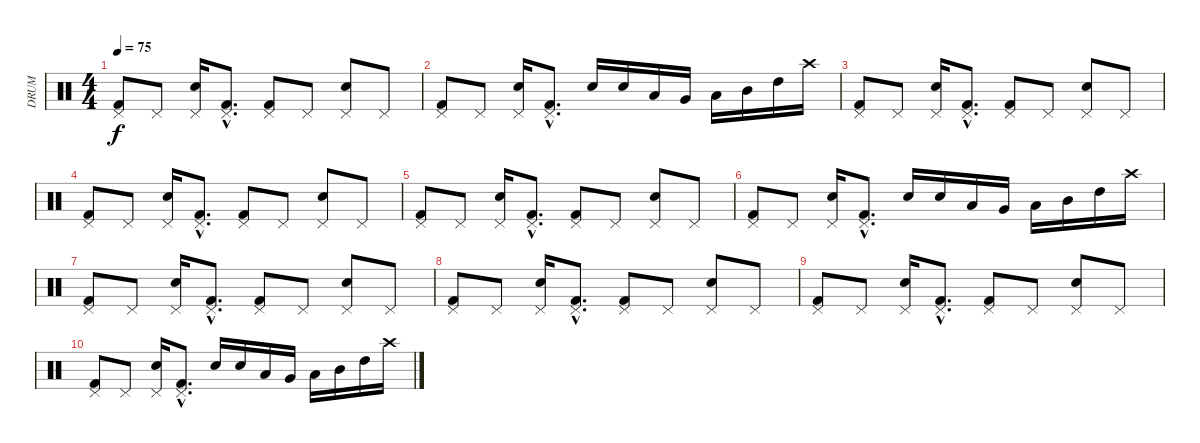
\track ("DRUM" "DRUM") {instrument percussion}
\staff {score}
\articulation defaults
\ts (4 4)
\tempo 75
\clef neutral
\ks c
("Kick (hit) 2" "Pedal Hi-Hat (hit)").8{dy f} "Pedal Hi-Hat (hit)".8 ("Electric Snare (hit)" "Pedal Hi-Hat (hit)").16 ("Kick (hit) 2"{hac} "Pedal Hi-Hat (hit)"{hac}).8{d} ("Kick (hit) 2" "Pedal Hi-Hat (hit)").8 "Pedal Hi-Hat (hit)".8 ("Electric Snare (hit)" "Pedal Hi-Hat (hit)").8 "Pedal Hi-Hat (hit)".8 |
("Kick (hit) 2" "Pedal Hi-Hat (hit)").8 "Pedal Hi-Hat (hit)".8 ("Electric Snare (hit)" "Pedal Hi-Hat (hit)").16 ("Kick (hit) 2"{hac} "Pedal Hi-Hat (hit)"{hac}).8{d} "Electric Snare (hit)".16 "Electric Snare (hit)".16 "Low Floor Tom (hit)".16 "Very Low Tom (hit)".16 "Low Tom (hit)".16 "Mid Tom (hit)".16 "High Tom (hit)".16 "Crash high (hit)".16 |
("Kick (hit) 2" "Pedal Hi-Hat (hit)").8 "Pedal Hi-Hat (hit)".8 ("Electric Snare (hit)" "Pedal Hi-Hat (hit)").16 ("Kick (hit) 2"{hac} "Pedal Hi-Hat (hit)"{hac}).8{d} ("Kick (hit) 2" "Pedal Hi-Hat (hit)").8 "Pedal Hi-Hat (hit)".8 ("Electric Snare (hit)" "Pedal Hi-Hat (hit)").8 "Pedal Hi-Hat (hit)".8 |
("Kick (hit) 2" "Pedal Hi-Hat (hit)").8 "Pedal Hi-Hat (hit)".8 ("Electric Snare (hit)" "Pedal Hi-Hat (hit)").16 ("Kick (hit) 2"{hac} "Pedal Hi-Hat (hit)"{hac}).8{d} ("Kick (hit) 2" "Pedal Hi-Hat (hit)").8 "Pedal Hi-Hat (hit)".8 ("Electric Snare (hit)" "Pedal Hi-Hat (hit)").8 "Pedal Hi-Hat (hit)".8 |
("Kick (hit) 2" "Pedal Hi-Hat (hit)").8 "Pedal Hi-Hat (hit)".8 ("Electric Snare (hit)" "Pedal Hi-Hat (hit)").16 ("Kick (hit) 2"{hac} "Pedal Hi-Hat (hit)"{hac}).8{d} ("Kick (hit) 2" "Pedal Hi-Hat (hit)").8 "Pedal Hi-Hat (hit)".8 ("Electric Snare (hit)" "Pedal Hi-Hat (hit)").8 "Pedal Hi-Hat (hit)".8 |
("Kick (hit) 2" "Pedal Hi-Hat (hit)").8 "Pedal Hi-Hat (hit)".8 ("Electric Snare (hit)" "Pedal Hi-Hat (hit)").16 ("Kick (hit) 2"{hac} "Pedal Hi-Hat (hit)"{hac}).8{d} "Electric Snare (hit)".16 "Electric Snare (hit)".16 "Low Floor Tom (hit)".16 "Very Low Tom (hit)".16 "Low Tom (hit)".16 "Mid Tom (hit)".16 "High Tom (hit)".16 "Crash high (hit)".16 |
("Kick (hit) 2" "Pedal Hi-Hat (hit)").8 "Pedal Hi-Hat (hit)".8 ("Electric Snare (hit)" "Pedal Hi-Hat (hit)").16 ("Kick (hit) 2"{hac} "Pedal Hi-Hat (hit)"{hac}).8{d} ("Kick (hit) 2" "Pedal Hi-Hat (hit)").8 "Pedal Hi-Hat (hit)".8 ("Electric Snare (hit)" "Pedal Hi-Hat (hit)").8 "Pedal Hi-Hat (hit)".8 |
("Kick (hit) 2" "Pedal Hi-Hat (hit)").8 "Pedal Hi-Hat (hit)".8 ("Electric Snare (hit)" "Pedal Hi-Hat (hit)").16 ("Kick (hit) 2"{hac} "Pedal Hi-Hat (hit)"{hac}).8{d} ("Kick (hit) 2" "Pedal Hi-Hat (hit)").8 "Pedal Hi-Hat (hit)".8 ("Electric Snare (hit)" "Pedal Hi-Hat (hit)").8 "Pedal Hi-Hat (hit)".8 |
("Kick (hit) 2" "Pedal Hi-Hat (hit)").8 "Pedal Hi-Hat (hit)".8 ("Electric Snare (hit)" "Pedal Hi-Hat (hit)").16 ("Kick (hit) 2"{hac} "Pedal Hi-Hat (hit)"{hac}).8{d} ("Kick (hit) 2" "Pedal Hi-Hat (hit)").8 "Pedal Hi-Hat (hit)".8 ("Electric Snare (hit)" "Pedal Hi-Hat (hit)").8 "Pedal Hi-Hat (hit)".8 |
("Kick (hit) 2" "Pedal Hi-Hat (hit)").8 "Pedal Hi-Hat (hit)".8 ("Electric Snare (hit)" "Pedal Hi-Hat (hit)").16 ("Kick (hit) 2"{hac} "Pedal Hi-Hat (hit)"{hac}).8{d} "Electric Snare (hit)".16 "Electric Snare (hit)".16 "Low Floor Tom (hit)".16 "Very Low Tom (hit)".16 "Low Tom (hit)".16 "Mid Tom (hit)".16 "High Tom (hit)".16 "Crash high (hit)".16
